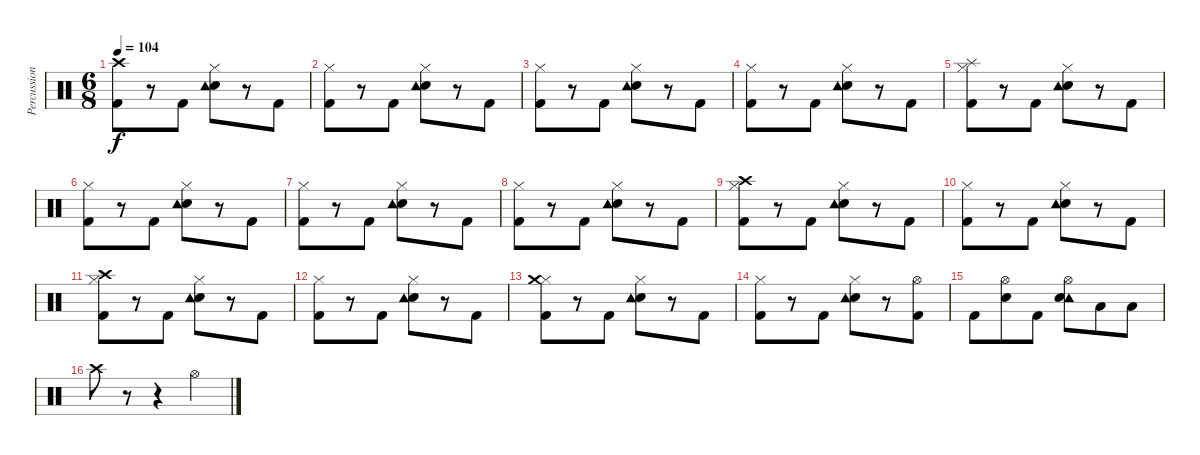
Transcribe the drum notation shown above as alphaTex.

\track ("Percussion" "Percussion") {instrument percussion}
\staff {score}
\articulation defaults
\ts (6 8)
\tempo 104
\clef neutral
\ks c
("Crash high (hit)" "Kick (hit) 2").8{dy f} r.8 "Kick (hit) 2".8 ("Snare (hit) 2" "Tambourine (hit)" "Hi-Hat (closed)").8 r.8 "Kick (hit) 2".8 |
("Hi-Hat (closed)" "Kick (hit) 2").8 r.8 "Kick (hit) 2".8 ("Snare (hit) 2" "Tambourine (hit)" "Hi-Hat (closed)").8 r.8 "Kick (hit) 2".8 |
("Hi-Hat (closed)" "Kick (hit) 2").8 r.8 "Kick (hit) 2".8 ("Snare (hit) 2" "Tambourine (hit)" "Hi-Hat (closed)").8 r.8 "Kick (hit) 2".8 |
("Hi-Hat (closed)" "Kick (hit) 2").8 r.8 "Kick (hit) 2".8 ("Snare (hit) 2" "Tambourine (hit)" "Hi-Hat (closed)").8 r.8 "Kick (hit) 2".8 |
("Hi-Hat (closed)" "Splash (hit)" "Kick (hit) 2").8 r.8 "Kick (hit) 2".8 ("Snare (hit) 2" "Tambourine (hit)" "Hi-Hat (closed)").8 r.8 "Kick (hit) 2".8 |
("Hi-Hat (closed)" "Kick (hit) 2").8 r.8 "Kick (hit) 2".8 ("Snare (hit) 2" "Tambourine (hit)" "Hi-Hat (closed)").8 r.8 "Kick (hit) 2".8 |
("Hi-Hat (closed)" "Kick (hit) 2").8 r.8 "Kick (hit) 2".8 ("Snare (hit) 2" "Tambourine (hit)" "Hi-Hat (closed)").8 r.8 "Kick (hit) 2".8 |
("Hi-Hat (closed)" "Kick (hit) 2").8 r.8 "Kick (hit) 2".8 ("Snare (hit) 2" "Tambourine (hit)" "Hi-Hat (closed)").8 r.8 "Kick (hit) 2".8 |
("Hi-Hat (closed)" "Kick (hit) 2" "Crash high (hit)").8 r.8 "Kick (hit) 2".8 ("Snare (hit) 2" "Tambourine (hit)" "Hi-Hat (closed)").8 r.8 "Kick (hit) 2".8 |
("Hi-Hat (closed)" "Kick (hit) 2").8 r.8 "Kick (hit) 2".8 ("Snare (hit) 2" "Tambourine (hit)" "Hi-Hat (closed)").8 r.8 "Kick (hit) 2".8 |
("Hi-Hat (closed)" "Kick (hit) 2" "Crash high (hit)").8 r.8 "Kick (hit) 2".8 ("Snare (hit) 2" "Tambourine (hit)" "Hi-Hat (closed)").8 r.8 "Kick (hit) 2".8 |
("Hi-Hat (closed)" "Kick (hit) 2").8 r.8 "Kick (hit) 2".8 ("Snare (hit) 2" "Tambourine (hit)" "Hi-Hat (closed)").8 r.8 "Kick (hit) 2".8 |
("Hi-Hat (closed)" "Kick (hit) 2" "Crash medium (hit)").8 r.8 "Kick (hit) 2".8 ("Snare (hit) 2" "Tambourine (hit)" "Hi-Hat (closed)").8 r.8 "Kick (hit) 2".8 |
("Hi-Hat (closed)" "Kick (hit) 2").8 r.8 "Kick (hit) 2".8 ("Snare (hit) 2" "Tambourine (hit)" "Hi-Hat (closed)").8 r.8 ("Hi-Hat (open)" "Kick (hit) 2").8 |
"Kick (hit) 2".8 ("Hi-Hat (open)" "Snare (hit) 2").8 "Kick (hit) 2".8 ("Hi-Hat (open)" "Tambourine (hit)" "Snare (hit) 2").8 "Low Tom (hit)".8 "Low Tom (hit)".8 |
"Crash high (hit)".8 r.8 r.4 "Hi-Hat (open)".4
